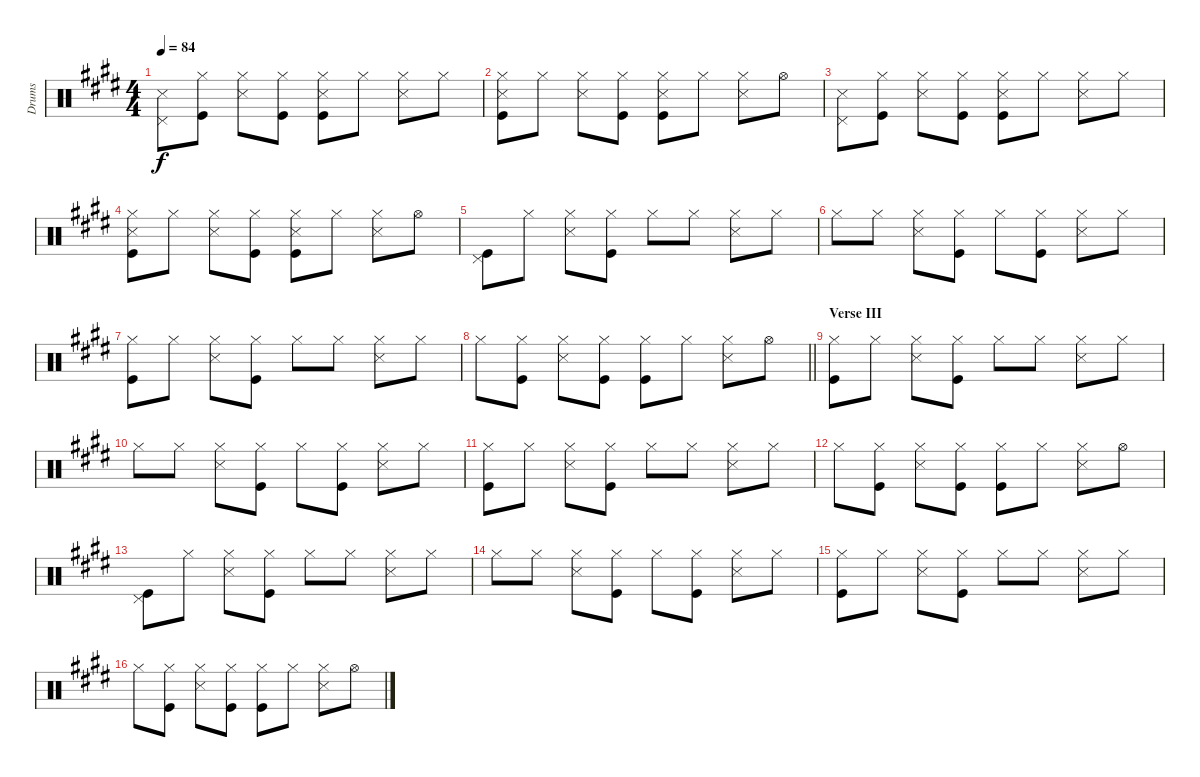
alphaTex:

\track ("Drums" "Drums") {instrument percussion}
\staff {score}
\articulation defaults
\ts (4 4)
\tempo 84
\clef neutral
\ks e
("Pedal Hi-Hat (hit)" "Snare (side stick) 3").8{dy f} ("Hi-Hat (closed)" "Kick (hit)").8 ("Hi-Hat (closed)" "Snare (side stick) 3").8 ("Hi-Hat (closed)" "Kick (hit)").8 ("Hi-Hat (closed)" "Kick (hit)" "Snare (side stick) 3").8 "Hi-Hat (closed)".8 ("Hi-Hat (closed)" "Snare (side stick) 3").8 "Hi-Hat (closed)".8 |
("Hi-Hat (closed)" "Kick (hit)" "Snare (side stick) 3").8 "Hi-Hat (closed)".8 ("Hi-Hat (closed)" "Snare (side stick) 3").8 ("Hi-Hat (closed)" "Kick (hit)").8 ("Hi-Hat (closed)" "Kick (hit)" "Snare (side stick) 3").8 "Hi-Hat (closed)".8 ("Hi-Hat (closed)" "Snare (side stick) 3").8 "Hi-Hat (open)".8 |
("Pedal Hi-Hat (hit)" "Snare (side stick) 3").8 ("Hi-Hat (closed)" "Kick (hit)").8 ("Hi-Hat (closed)" "Snare (side stick) 3").8 ("Hi-Hat (closed)" "Kick (hit)").8 ("Hi-Hat (closed)" "Kick (hit)" "Snare (side stick) 3").8 "Hi-Hat (closed)".8 ("Hi-Hat (closed)" "Snare (side stick) 3").8 "Hi-Hat (closed)".8 |
("Hi-Hat (closed)" "Kick (hit)" "Snare (side stick) 3").8 "Hi-Hat (closed)".8 ("Hi-Hat (closed)" "Snare (side stick) 3").8 ("Hi-Hat (closed)" "Kick (hit)").8 ("Hi-Hat (closed)" "Kick (hit)" "Snare (side stick) 3").8 "Hi-Hat (closed)".8 ("Hi-Hat (closed)" "Snare (side stick) 3").8 "Hi-Hat (open)".8 |
("Pedal Hi-Hat (hit)" "Kick (hit)").8 "Hi-Hat (closed)".8 ("Hi-Hat (closed)" "Snare (side stick) 3").8 ("Hi-Hat (closed)" "Kick (hit)").8 "Hi-Hat (closed)".8 "Hi-Hat (closed)".8 ("Hi-Hat (closed)" "Snare (side stick) 3").8 "Hi-Hat (closed)".8 |
\ks c#minor "Hi-Hat (closed)".8 "Hi-Hat (closed)".8
("Hi-Hat (closed)" "Snare (side stick) 3").8 ("Hi-Hat (closed)" "Kick (hit)").8 "Hi-Hat (closed)".8 ("Hi-Hat (closed)" "Kick (hit)").8 ("Hi-Hat (closed)" "Snare (side stick) 3").8 "Hi-Hat (closed)".8 |
("Hi-Hat (closed)" "Kick (hit)").8 "Hi-Hat (closed)".8 ("Hi-Hat (closed)" "Snare (side stick) 3").8 ("Hi-Hat (closed)" "Kick (hit)").8 "Hi-Hat (closed)".8 "Hi-Hat (closed)".8 ("Hi-Hat (closed)" "Snare (side stick) 3").8 "Hi-Hat (closed)".8 |
\barLineRight lightlight
\ks e "Hi-Hat (closed)".8
("Hi-Hat (closed)" "Kick (hit)").8 ("Hi-Hat (closed)" "Snare (side stick) 3").8 ("Hi-Hat (closed)" "Kick (hit)").8 ("Hi-Hat (closed)" "Kick (hit)").8 "Hi-Hat (closed)".8 ("Hi-Hat (closed)" "Snare (side stick) 3").8 "Hi-Hat (open)".8 |
\section ("" "Verse III")
\ks c#minor
("Hi-Hat (closed)" "Kick (hit)").8 "Hi-Hat (closed)".8 ("Hi-Hat (closed)" "Snare (side stick) 3").8 ("Hi-Hat (closed)" "Kick (hit)").8 "Hi-Hat (closed)".8 "Hi-Hat (closed)".8 ("Hi-Hat (closed)" "Snare (side stick) 3").8 "Hi-Hat (closed)".8 |
"Hi-Hat (closed)".8 "Hi-Hat (closed)".8 ("Hi-Hat (closed)" "Snare (side stick) 3").8 ("Hi-Hat (closed)" "Kick (hit)").8 "Hi-Hat (closed)".8 ("Hi-Hat (closed)" "Kick (hit)").8 ("Hi-Hat (closed)" "Snare (side stick) 3").8 "Hi-Hat (closed)".8 |
\ks e
("Hi-Hat (closed)" "Kick (hit)").8 "Hi-Hat (closed)".8 ("Hi-Hat (closed)" "Snare (side stick) 3").8 ("Hi-Hat (closed)" "Kick (hit)").8 "Hi-Hat (closed)".8 "Hi-Hat (closed)".8 ("Hi-Hat (closed)" "Snare (side stick) 3").8 "Hi-Hat (closed)".8 |
\ks c#minor "Hi-Hat (closed)".8
("Hi-Hat (closed)" "Kick (hit)").8 ("Hi-Hat (closed)" "Snare (side stick) 3").8 ("Hi-Hat (closed)" "Kick (hit)").8 ("Hi-Hat (closed)" "Kick (hit)").8 "Hi-Hat (closed)".8 ("Hi-Hat (closed)" "Snare (side stick) 3").8 "Hi-Hat (open)".8 |
("Pedal Hi-Hat (hit)" "Kick (hit)").8 "Hi-Hat (closed)".8 ("Hi-Hat (closed)" "Snare (side stick) 3").8 ("Hi-Hat (closed)" "Kick (hit)").8 "Hi-Hat (closed)".8 "Hi-Hat (closed)".8 ("Hi-Hat (closed)" "Snare (side stick) 3").8 "Hi-Hat (closed)".8 |
\ks e "Hi-Hat (closed)".8 "Hi-Hat (closed)".8
("Hi-Hat (closed)" "Snare (side stick) 3").8 ("Hi-Hat (closed)" "Kick (hit)").8 "Hi-Hat (closed)".8 ("Hi-Hat (closed)" "Kick (hit)").8 ("Hi-Hat (closed)" "Snare (side stick) 3").8 "Hi-Hat (closed)".8 |
\ks c#minor
("Hi-Hat (closed)" "Kick (hit)").8 "Hi-Hat (closed)".8 ("Hi-Hat (closed)" "Snare (side stick) 3").8 ("Hi-Hat (closed)" "Kick (hit)").8 "Hi-Hat (closed)".8 "Hi-Hat (closed)".8 ("Hi-Hat (closed)" "Snare (side stick) 3").8 "Hi-Hat (closed)".8 |
"Hi-Hat (closed)".8 ("Hi-Hat (closed)" "Kick (hit)").8 ("Hi-Hat (closed)" "Snare (side stick) 3").8 ("Hi-Hat (closed)" "Kick (hit)").8 ("Hi-Hat (closed)" "Kick (hit)").8 "Hi-Hat (closed)".8 ("Hi-Hat (closed)" "Snare (side stick) 3").8 "Hi-Hat (open)".8
